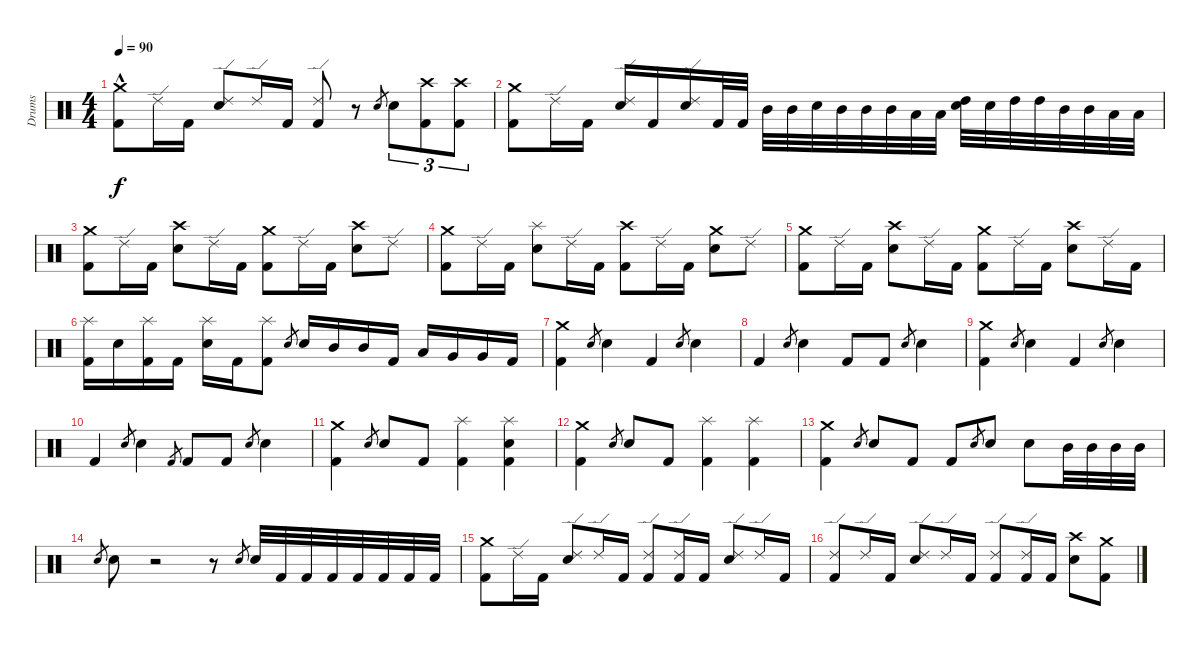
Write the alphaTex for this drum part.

\track ("Drums" "Drums") {instrument percussion}
\staff {score}
\articulation defaults
\ts (4 4)
\tempo 90
\clef neutral
\ks c
("Crash medium (hit)" "Kick (hit) 2"{hac}).8{dy f} "Ride (edge) 2".16 "Kick (hit) 2".16 ("Ride (edge) 2" "Electric Snare (hit)").8 "Ride (edge) 2".16 "Kick (hit) 2".16 ("Ride (edge) 2" "Kick (hit) 2").8 r.8 "Electric Snare (hit)".8{gr} "Electric Snare (hit)".8{tu (3 2)} ("Crash high (hit)" "Kick (hit) 2").8{tu (3 2)} ("Crash high (hit)" "Kick (hit) 2").8{tu (3 2)} |
("Crash medium (hit)" "Kick (hit) 2").8 "Ride (edge) 2".16 "Kick (hit) 2".16 ("Ride (edge) 2" "Electric Snare (hit)").16 "Kick (hit) 2".16 ("Ride (edge) 2" "Electric Snare (hit)").16 "Kick (hit) 2".32 "Kick (hit) 2".32 "Mid Tom (hit)".32 "Mid Tom (hit)".32 "Electric Snare (hit)".32 "Mid Tom (hit)".32 "Mid Tom (hit)".32 "Mid Tom (hit)".32 "Low Tom (hit)".32 "Low Tom (hit)".32 ("High Tom (hit)" "Electric Snare (hit)").32 "Electric Snare (hit)".32 "High Tom (hit)".32 "High Tom (hit)".32 "Mid Tom (hit)".32 "Mid Tom (hit)".32 "Low Tom (hit)".32 "Low Tom (hit)".32 |
("Crash medium (hit)" "Kick (hit) 2").8 "Ride (edge) 2".16 "Kick (hit) 2".16 ("Crash high (hit)" "Electric Snare (hit)").8 "Ride (edge) 2".16 "Kick (hit) 2".16 ("Crash medium (hit)" "Kick (hit) 2").8 "Ride (edge) 2".16 "Kick (hit) 2".16 ("Crash high (hit)" "Electric Snare (hit)").8 "Ride (edge) 2".8 |
("Crash medium (hit)" "Kick (hit) 2").8 "Ride (edge) 2".16 "Kick (hit) 2".16 ("Splash (hit)" "Electric Snare (hit)").8 "Ride (edge) 2".16 "Kick (hit) 2".16 ("Crash high (hit)" "Kick (hit) 2").8 "Ride (edge) 2".16 "Kick (hit) 2".16 ("Crash medium (hit)" "Electric Snare (hit)").8 "Ride (edge) 2".8 |
("Crash medium (hit)" "Kick (hit) 2").8 "Ride (edge) 2".16 "Kick (hit) 2".16 ("Crash high (hit)" "Electric Snare (hit)").8 "Ride (edge) 2".16 "Kick (hit) 2".16 ("Crash medium (hit)" "Kick (hit) 2").8 "Ride (edge) 2".16 "Kick (hit) 2".16 ("Crash high (hit)" "Electric Snare (hit)").8 "Ride (edge) 2".16 "Kick (hit) 2".16 |
("Splash (hit)" "Kick (hit) 2").16 "Electric Snare (hit)".16 ("Splash (hit)" "Kick (hit) 2").16 "Kick (hit) 2".16 ("Splash (hit)" "Electric Snare (hit)").16 "Kick (hit) 2".16 ("Splash (hit)" "Kick (hit) 2").8 "Electric Snare (hit)".8{gr} "Electric Snare (hit)".16 "Mid Tom (hit)".16 "Mid Tom (hit)".16 "Kick (hit) 2".16 "Low Tom (hit)".16 "Very Low Tom (hit)".16 "Very Low Tom (hit)".16 "Kick (hit) 2".16 |
("Crash medium (hit)" "Kick (hit) 2").4 "Electric Snare (hit)".8{gr} "Electric Snare (hit)".4 "Kick (hit) 2".4 "Electric Snare (hit)".8{gr} "Electric Snare (hit)".4 |
"Kick (hit) 2".4 "Electric Snare (hit)".8{gr} "Electric Snare (hit)".4 "Kick (hit) 2".8 "Kick (hit) 2".8 "Electric Snare (hit)".8{gr} "Electric Snare (hit)".4 |
("Crash medium (hit)" "Kick (hit) 2").4 "Electric Snare (hit)".8{gr} "Electric Snare (hit)".4 "Kick (hit) 2".4 "Electric Snare (hit)".8{gr} "Electric Snare (hit)".4 |
"Kick (hit) 2".4 "Electric Snare (hit)".8{gr} "Electric Snare (hit)".4 "Kick (hit) 2".8{gr} "Kick (hit) 2".8 "Kick (hit) 2".8 "Electric Snare (hit)".8{gr} "Electric Snare (hit)".4 |
("Crash medium (hit)" "Kick (hit) 2").4 "Electric Snare (hit)".8{gr} "Electric Snare (hit)".8 "Kick (hit) 2".8 ("Splash (hit)" "Kick (hit) 2").4 ("Splash (hit)" "Kick (hit) 2" "Electric Snare (hit)").4 |
("Crash medium (hit)" "Kick (hit) 2").4 "Electric Snare (hit)".8{gr} "Electric Snare (hit)".8 "Kick (hit) 2".8 ("Splash (hit)" "Kick (hit) 2").4 ("Splash (hit)" "Kick (hit) 2").4 |
("Crash medium (hit)" "Kick (hit) 2").4 "Electric Snare (hit)".8{gr} "Electric Snare (hit)".8 "Kick (hit) 2".8 "Kick (hit) 2".8 "Electric Snare (hit)".8{gr} "Electric Snare (hit)".8 "Electric Snare (hit)".8 "Mid Tom (hit)".32 "Mid Tom (hit)".32 "Mid Tom (hit)".32 "Mid Tom (hit)".32 |
"Electric Snare (hit)".8{gr} "Electric Snare (hit)".8 r.2 r.8 "Electric Snare (hit)".8{gr} "Electric Snare (hit)".32 "Kick (hit) 2".32 "Kick (hit) 2".32 "Kick (hit) 2".32 "Kick (hit) 2".32 "Kick (hit) 2".32 "Kick (hit) 2".32 "Kick (hit) 2".32 |
("Crash medium (hit)" "Kick (hit) 2").8 "Ride (edge) 2".16 "Kick (hit) 2".16 ("Ride (edge) 2" "Electric Snare (hit)").8 "Ride (edge) 2".16 "Kick (hit) 2".16 ("Ride (edge) 2" "Kick (hit) 2").8 ("Ride (edge) 2" "Kick (hit) 2").16 "Kick (hit) 2".16 ("Ride (edge) 2" "Electric Snare (hit)").8 "Ride (edge) 2".16 "Kick (hit) 2".16 |
("Ride (edge) 2" "Kick (hit) 2").8 "Ride (edge) 2".16 "Kick (hit) 2".16 ("Ride (edge) 2" "Electric Snare (hit)").8 "Ride (edge) 2".16 "Kick (hit) 2".16 ("Ride (edge) 2" "Kick (hit) 2").8 ("Ride (edge) 2" "Kick (hit) 2").16 "Kick (hit) 2".16 ("Crash high (hit)" "Electric Snare (hit)").8 ("Crash medium (hit)" "Kick (hit) 2").8
